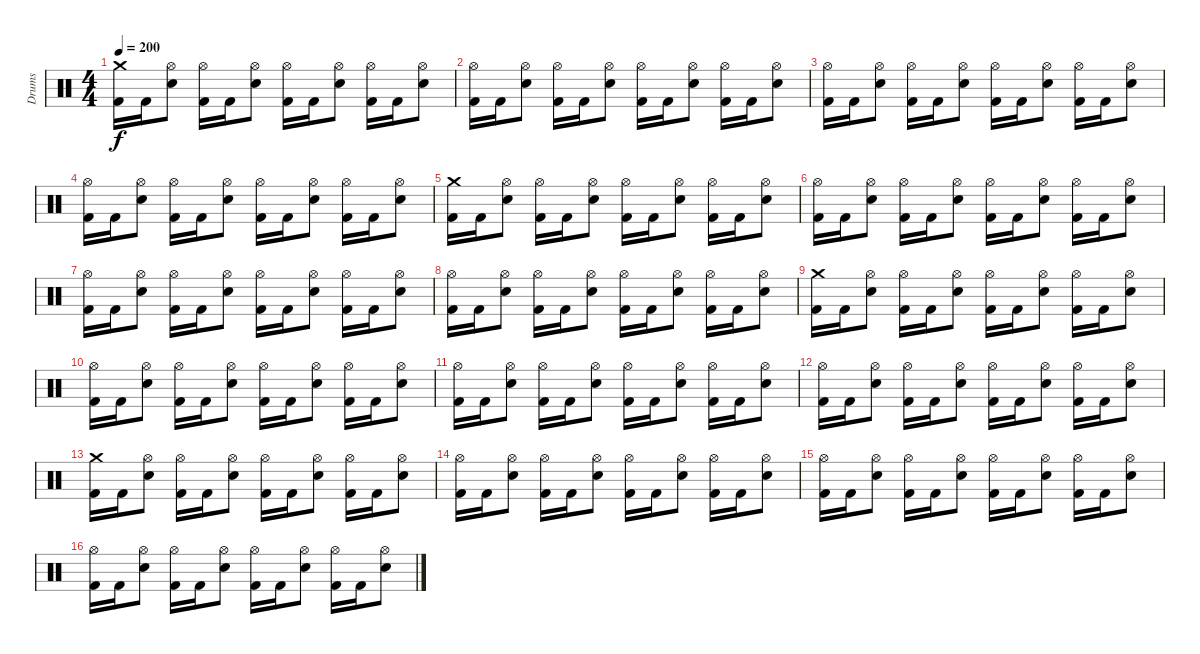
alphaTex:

\track ("Drums" "Drums") {instrument percussion}
\staff {score}
\articulation defaults
\ts (4 4)
\tempo 200
\clef neutral
\ks c
("Crash medium (hit)" "Kick (hit) 2").16{dy f} "Kick (hit) 2".16 ("Hi-Hat (open)" "Electric Snare (hit)").8 ("Hi-Hat (open)" "Kick (hit) 2").16 "Kick (hit) 2".16 ("Hi-Hat (open)" "Electric Snare (hit)").8 ("Hi-Hat (open)" "Kick (hit) 2").16 "Kick (hit) 2".16 ("Hi-Hat (open)" "Electric Snare (hit)").8 ("Hi-Hat (open)" "Kick (hit) 2").16 "Kick (hit) 2".16 ("Hi-Hat (open)" "Electric Snare (hit)").8 |
("Hi-Hat (open)" "Kick (hit) 2").16 "Kick (hit) 2".16 ("Hi-Hat (open)" "Electric Snare (hit)").8 ("Hi-Hat (open)" "Kick (hit) 2").16 "Kick (hit) 2".16 ("Hi-Hat (open)" "Electric Snare (hit)").8 ("Hi-Hat (open)" "Kick (hit) 2").16 "Kick (hit) 2".16 ("Hi-Hat (open)" "Electric Snare (hit)").8 ("Hi-Hat (open)" "Kick (hit) 2").16 "Kick (hit) 2".16 ("Hi-Hat (open)" "Electric Snare (hit)").8 |
("Hi-Hat (open)" "Kick (hit) 2").16 "Kick (hit) 2".16 ("Hi-Hat (open)" "Electric Snare (hit)").8 ("Hi-Hat (open)" "Kick (hit) 2").16 "Kick (hit) 2".16 ("Hi-Hat (open)" "Electric Snare (hit)").8 ("Hi-Hat (open)" "Kick (hit) 2").16 "Kick (hit) 2".16 ("Hi-Hat (open)" "Electric Snare (hit)").8 ("Hi-Hat (open)" "Kick (hit) 2").16 "Kick (hit) 2".16 ("Hi-Hat (open)" "Electric Snare (hit)").8 |
("Hi-Hat (open)" "Kick (hit) 2").16 "Kick (hit) 2".16 ("Hi-Hat (open)" "Electric Snare (hit)").8 ("Hi-Hat (open)" "Kick (hit) 2").16 "Kick (hit) 2".16 ("Hi-Hat (open)" "Electric Snare (hit)").8 ("Hi-Hat (open)" "Kick (hit) 2").16 "Kick (hit) 2".16 ("Hi-Hat (open)" "Electric Snare (hit)").8 ("Hi-Hat (open)" "Kick (hit) 2").16 "Kick (hit) 2".16 ("Hi-Hat (open)" "Electric Snare (hit)").8 |
("Crash medium (hit)" "Kick (hit) 2").16 "Kick (hit) 2".16 ("Hi-Hat (open)" "Electric Snare (hit)").8 ("Hi-Hat (open)" "Kick (hit) 2").16 "Kick (hit) 2".16 ("Hi-Hat (open)" "Electric Snare (hit)").8 ("Hi-Hat (open)" "Kick (hit) 2").16 "Kick (hit) 2".16 ("Hi-Hat (open)" "Electric Snare (hit)").8 ("Hi-Hat (open)" "Kick (hit) 2").16 "Kick (hit) 2".16 ("Hi-Hat (open)" "Electric Snare (hit)").8 |
("Hi-Hat (open)" "Kick (hit) 2").16 "Kick (hit) 2".16 ("Hi-Hat (open)" "Electric Snare (hit)").8 ("Hi-Hat (open)" "Kick (hit) 2").16 "Kick (hit) 2".16 ("Hi-Hat (open)" "Electric Snare (hit)").8 ("Hi-Hat (open)" "Kick (hit) 2").16 "Kick (hit) 2".16 ("Hi-Hat (open)" "Electric Snare (hit)").8 ("Hi-Hat (open)" "Kick (hit) 2").16 "Kick (hit) 2".16 ("Hi-Hat (open)" "Electric Snare (hit)").8 |
("Hi-Hat (open)" "Kick (hit) 2").16 "Kick (hit) 2".16 ("Hi-Hat (open)" "Electric Snare (hit)").8 ("Hi-Hat (open)" "Kick (hit) 2").16 "Kick (hit) 2".16 ("Hi-Hat (open)" "Electric Snare (hit)").8 ("Hi-Hat (open)" "Kick (hit) 2").16 "Kick (hit) 2".16 ("Hi-Hat (open)" "Electric Snare (hit)").8 ("Hi-Hat (open)" "Kick (hit) 2").16 "Kick (hit) 2".16 ("Hi-Hat (open)" "Electric Snare (hit)").8 |
("Hi-Hat (open)" "Kick (hit) 2").16 "Kick (hit) 2".16 ("Hi-Hat (open)" "Electric Snare (hit)").8 ("Hi-Hat (open)" "Kick (hit) 2").16 "Kick (hit) 2".16 ("Hi-Hat (open)" "Electric Snare (hit)").8 ("Hi-Hat (open)" "Kick (hit) 2").16 "Kick (hit) 2".16 ("Hi-Hat (open)" "Electric Snare (hit)").8 ("Hi-Hat (open)" "Kick (hit) 2").16 "Kick (hit) 2".16 ("Hi-Hat (open)" "Electric Snare (hit)").8 |
("Crash medium (hit)" "Kick (hit) 2").16 "Kick (hit) 2".16 ("Hi-Hat (open)" "Electric Snare (hit)").8 ("Hi-Hat (open)" "Kick (hit) 2").16 "Kick (hit) 2".16 ("Hi-Hat (open)" "Electric Snare (hit)").8 ("Hi-Hat (open)" "Kick (hit) 2").16 "Kick (hit) 2".16 ("Hi-Hat (open)" "Electric Snare (hit)").8 ("Hi-Hat (open)" "Kick (hit) 2").16 "Kick (hit) 2".16 ("Hi-Hat (open)" "Electric Snare (hit)").8 |
("Hi-Hat (open)" "Kick (hit) 2").16 "Kick (hit) 2".16 ("Hi-Hat (open)" "Electric Snare (hit)").8 ("Hi-Hat (open)" "Kick (hit) 2").16 "Kick (hit) 2".16 ("Hi-Hat (open)" "Electric Snare (hit)").8 ("Hi-Hat (open)" "Kick (hit) 2").16 "Kick (hit) 2".16 ("Hi-Hat (open)" "Electric Snare (hit)").8 ("Hi-Hat (open)" "Kick (hit) 2").16 "Kick (hit) 2".16 ("Hi-Hat (open)" "Electric Snare (hit)").8 |
("Hi-Hat (open)" "Kick (hit) 2").16 "Kick (hit) 2".16 ("Hi-Hat (open)" "Electric Snare (hit)").8 ("Hi-Hat (open)" "Kick (hit) 2").16 "Kick (hit) 2".16 ("Hi-Hat (open)" "Electric Snare (hit)").8 ("Hi-Hat (open)" "Kick (hit) 2").16 "Kick (hit) 2".16 ("Hi-Hat (open)" "Electric Snare (hit)").8 ("Hi-Hat (open)" "Kick (hit) 2").16 "Kick (hit) 2".16 ("Hi-Hat (open)" "Electric Snare (hit)").8 |
("Hi-Hat (open)" "Kick (hit) 2").16 "Kick (hit) 2".16 ("Hi-Hat (open)" "Electric Snare (hit)").8 ("Hi-Hat (open)" "Kick (hit) 2").16 "Kick (hit) 2".16 ("Hi-Hat (open)" "Electric Snare (hit)").8 ("Hi-Hat (open)" "Kick (hit) 2").16 "Kick (hit) 2".16 ("Hi-Hat (open)" "Electric Snare (hit)").8 ("Hi-Hat (open)" "Kick (hit) 2").16 "Kick (hit) 2".16 ("Hi-Hat (open)" "Electric Snare (hit)").8 |
("Crash medium (hit)" "Kick (hit) 2").16 "Kick (hit) 2".16 ("Hi-Hat (open)" "Electric Snare (hit)").8 ("Hi-Hat (open)" "Kick (hit) 2").16 "Kick (hit) 2".16 ("Hi-Hat (open)" "Electric Snare (hit)").8 ("Hi-Hat (open)" "Kick (hit) 2").16 "Kick (hit) 2".16 ("Hi-Hat (open)" "Electric Snare (hit)").8 ("Hi-Hat (open)" "Kick (hit) 2").16 "Kick (hit) 2".16 ("Hi-Hat (open)" "Electric Snare (hit)").8 |
("Hi-Hat (open)" "Kick (hit) 2").16 "Kick (hit) 2".16 ("Hi-Hat (open)" "Electric Snare (hit)").8 ("Hi-Hat (open)" "Kick (hit) 2").16 "Kick (hit) 2".16 ("Hi-Hat (open)" "Electric Snare (hit)").8 ("Hi-Hat (open)" "Kick (hit) 2").16 "Kick (hit) 2".16 ("Hi-Hat (open)" "Electric Snare (hit)").8 ("Hi-Hat (open)" "Kick (hit) 2").16 "Kick (hit) 2".16 ("Hi-Hat (open)" "Electric Snare (hit)").8 |
("Hi-Hat (open)" "Kick (hit) 2").16 "Kick (hit) 2".16 ("Hi-Hat (open)" "Electric Snare (hit)").8 ("Hi-Hat (open)" "Kick (hit) 2").16 "Kick (hit) 2".16 ("Hi-Hat (open)" "Electric Snare (hit)").8 ("Hi-Hat (open)" "Kick (hit) 2").16 "Kick (hit) 2".16 ("Hi-Hat (open)" "Electric Snare (hit)").8 ("Hi-Hat (open)" "Kick (hit) 2").16 "Kick (hit) 2".16 ("Hi-Hat (open)" "Electric Snare (hit)").8 |
("Hi-Hat (open)" "Kick (hit) 2").16 "Kick (hit) 2".16 ("Hi-Hat (open)" "Electric Snare (hit)").8 ("Hi-Hat (open)" "Kick (hit) 2").16 "Kick (hit) 2".16 ("Hi-Hat (open)" "Electric Snare (hit)").8 ("Hi-Hat (open)" "Kick (hit) 2").16 "Kick (hit) 2".16 ("Hi-Hat (open)" "Electric Snare (hit)").8 ("Hi-Hat (open)" "Kick (hit) 2").16 "Kick (hit) 2".16 ("Hi-Hat (open)" "Electric Snare (hit)").8
